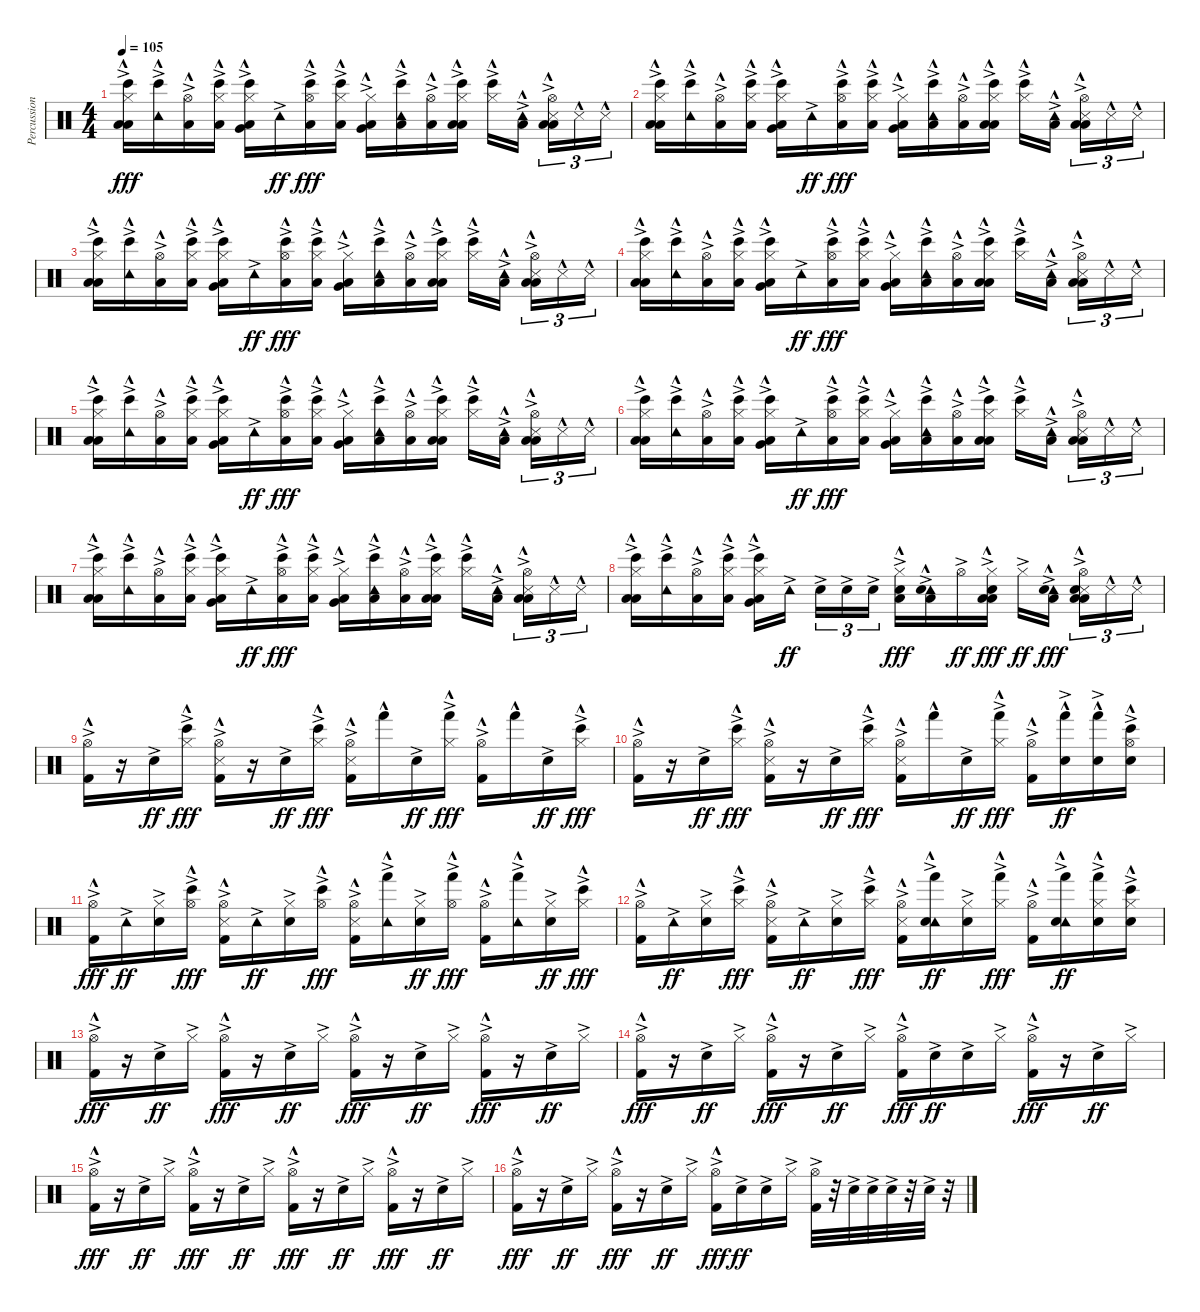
\track ("Percussion" "Percussion") {instrument percussion}
\staff {score}
\articulation defaults
\ts (4 4)
\tempo 105
\clef neutral
\ks c
("Hi-Hat (closed)"{ac} "Bongo High (hit)"{hac} "Low Floor Tom (hit)"{hac} "Low Floor Tom (hit)"{hac}).16{dy fff} ("Tambourine (hit)"{ac} "Bongo High (hit)"{hac}).16 ("Hi-Hat (open)"{ac} "Low Floor Tom (hit)"{hac}).16 ("Hi-Hat (closed)"{ac} "Bongo High (hit)"{hac} "Low Floor Tom (hit)"{hac}).16 ("Hi-Hat (closed)"{ac} "Bongo High (hit)"{hac} "Very Low Tom (hit)"{hac} "Low Floor Tom (hit)"{hac}).16 "Tambourine (hit)"{ac}.16{dy ff} ("Hi-Hat (open)"{ac} "Bongo High (hit)"{hac} "Low Floor Tom (hit)"{hac}).16{dy fff} ("Hi-Hat (closed)"{ac} "Bongo High (hit)"{hac} "Low Floor Tom (hit)"{hac}).16 ("Hi-Hat (closed)"{ac} "Very Low Tom (hit)"{hac} "Low Floor Tom (hit)"{hac}).16 ("Tambourine (hit)"{ac} "Bongo High (hit)"{hac} "Low Floor Tom (hit)"{hac}).16 ("Hi-Hat (open)"{ac} "Low Floor Tom (hit)"{hac}).16 ("Hi-Hat (closed)"{ac} "Bongo High (hit)"{hac} "Low Floor Tom (hit)"{hac} "Low Floor Tom (hit)"{hac}).16 ("Hi-Hat (closed)"{ac} "Bongo High (hit)"{hac}).16 ("Tambourine (hit)"{ac} "Low Floor Tom (hit)"{hac}).16{beam splitsecondary} ("Hi-Hat (open)"{ac} "Snare (side stick) 3"{hac} "Low Floor Tom (hit)"{hac} "Low Floor Tom (hit)"{hac}).16{tu (3 2)} "Snare (side stick) 3"{hac}.16{tu (3 2)} "Snare (side stick) 3"{hac}.16{tu (3 2)} |
("Hi-Hat (closed)"{ac} "Bongo High (hit)"{hac} "Low Floor Tom (hit)"{hac} "Low Floor Tom (hit)"{hac}).16 ("Tambourine (hit)"{ac} "Bongo High (hit)"{hac}).16 ("Hi-Hat (open)"{ac} "Low Floor Tom (hit)"{hac}).16 ("Hi-Hat (closed)"{ac} "Bongo High (hit)"{hac} "Low Floor Tom (hit)"{hac}).16 ("Hi-Hat (closed)"{ac} "Bongo High (hit)"{hac} "Very Low Tom (hit)"{hac} "Low Floor Tom (hit)"{hac}).16 "Tambourine (hit)"{ac}.16{dy ff} ("Hi-Hat (open)"{ac} "Bongo High (hit)"{hac} "Low Floor Tom (hit)"{hac}).16{dy fff} ("Hi-Hat (closed)"{ac} "Bongo High (hit)"{hac} "Low Floor Tom (hit)"{hac}).16 ("Hi-Hat (closed)"{ac} "Very Low Tom (hit)"{hac} "Low Floor Tom (hit)"{hac}).16 ("Tambourine (hit)"{ac} "Bongo High (hit)"{hac} "Low Floor Tom (hit)"{hac}).16 ("Hi-Hat (open)"{ac} "Low Floor Tom (hit)"{hac}).16 ("Hi-Hat (closed)"{ac} "Bongo High (hit)"{hac} "Low Floor Tom (hit)"{hac} "Low Floor Tom (hit)"{hac}).16 ("Hi-Hat (closed)"{ac} "Bongo High (hit)"{hac}).16 ("Tambourine (hit)"{ac} "Low Floor Tom (hit)"{hac}).16{beam splitsecondary} ("Hi-Hat (open)"{ac} "Snare (side stick) 3"{hac} "Low Floor Tom (hit)"{hac} "Low Floor Tom (hit)"{hac}).16{tu (3 2)} "Snare (side stick) 3"{hac}.16{tu (3 2)} "Snare (side stick) 3"{hac}.16{tu (3 2)} |
("Hi-Hat (closed)"{ac} "Bongo High (hit)"{hac} "Low Floor Tom (hit)"{hac} "Low Floor Tom (hit)"{hac}).16 ("Tambourine (hit)"{ac} "Bongo High (hit)"{hac}).16 ("Hi-Hat (open)"{ac} "Low Floor Tom (hit)"{hac}).16 ("Hi-Hat (closed)"{ac} "Bongo High (hit)"{hac} "Low Floor Tom (hit)"{hac}).16 ("Hi-Hat (closed)"{ac} "Bongo High (hit)"{hac} "Very Low Tom (hit)"{hac} "Low Floor Tom (hit)"{hac}).16 "Tambourine (hit)"{ac}.16{dy ff} ("Hi-Hat (open)"{ac} "Bongo High (hit)"{hac} "Low Floor Tom (hit)"{hac}).16{dy fff} ("Hi-Hat (closed)"{ac} "Bongo High (hit)"{hac} "Low Floor Tom (hit)"{hac}).16 ("Hi-Hat (closed)"{ac} "Very Low Tom (hit)"{hac} "Low Floor Tom (hit)"{hac}).16 ("Tambourine (hit)"{ac} "Bongo High (hit)"{hac} "Low Floor Tom (hit)"{hac}).16 ("Hi-Hat (open)"{ac} "Low Floor Tom (hit)"{hac}).16 ("Hi-Hat (closed)"{ac} "Bongo High (hit)"{hac} "Low Floor Tom (hit)"{hac} "Low Floor Tom (hit)"{hac}).16 ("Hi-Hat (closed)"{ac} "Bongo High (hit)"{hac}).16 ("Tambourine (hit)"{ac} "Low Floor Tom (hit)"{hac}).16{beam splitsecondary} ("Hi-Hat (open)"{ac} "Snare (side stick) 3"{hac} "Low Floor Tom (hit)"{hac} "Low Floor Tom (hit)"{hac}).16{tu (3 2)} "Snare (side stick) 3"{hac}.16{tu (3 2)} "Snare (side stick) 3"{hac}.16{tu (3 2)} |
("Hi-Hat (closed)"{ac} "Bongo High (hit)"{hac} "Low Floor Tom (hit)"{hac} "Low Floor Tom (hit)"{hac}).16 ("Tambourine (hit)"{ac} "Bongo High (hit)"{hac}).16 ("Hi-Hat (open)"{ac} "Low Floor Tom (hit)"{hac}).16 ("Hi-Hat (closed)"{ac} "Bongo High (hit)"{hac} "Low Floor Tom (hit)"{hac}).16 ("Hi-Hat (closed)"{ac} "Bongo High (hit)"{hac} "Very Low Tom (hit)"{hac} "Low Floor Tom (hit)"{hac}).16 "Tambourine (hit)"{ac}.16{dy ff} ("Hi-Hat (open)"{ac} "Bongo High (hit)"{hac} "Low Floor Tom (hit)"{hac}).16{dy fff} ("Hi-Hat (closed)"{ac} "Bongo High (hit)"{hac} "Low Floor Tom (hit)"{hac}).16 ("Hi-Hat (closed)"{ac} "Very Low Tom (hit)"{hac} "Low Floor Tom (hit)"{hac}).16 ("Tambourine (hit)"{ac} "Bongo High (hit)"{hac} "Low Floor Tom (hit)"{hac}).16 ("Hi-Hat (open)"{ac} "Low Floor Tom (hit)"{hac}).16 ("Hi-Hat (closed)"{ac} "Bongo High (hit)"{hac} "Low Floor Tom (hit)"{hac} "Low Floor Tom (hit)"{hac}).16 ("Hi-Hat (closed)"{ac} "Bongo High (hit)"{hac}).16 ("Tambourine (hit)"{ac} "Low Floor Tom (hit)"{hac}).16{beam splitsecondary} ("Hi-Hat (open)"{ac} "Snare (side stick) 3"{hac} "Low Floor Tom (hit)"{hac} "Low Floor Tom (hit)"{hac}).16{tu (3 2)} "Snare (side stick) 3"{hac}.16{tu (3 2)} "Snare (side stick) 3"{hac}.16{tu (3 2)} |
("Hi-Hat (closed)"{ac} "Bongo High (hit)"{hac} "Low Floor Tom (hit)"{hac} "Low Floor Tom (hit)"{hac}).16 ("Tambourine (hit)"{ac} "Bongo High (hit)"{hac}).16 ("Hi-Hat (open)"{ac} "Low Floor Tom (hit)"{hac}).16 ("Hi-Hat (closed)"{ac} "Bongo High (hit)"{hac} "Low Floor Tom (hit)"{hac}).16 ("Hi-Hat (closed)"{ac} "Bongo High (hit)"{hac} "Very Low Tom (hit)"{hac} "Low Floor Tom (hit)"{hac}).16 "Tambourine (hit)"{ac}.16{dy ff} ("Hi-Hat (open)"{ac} "Bongo High (hit)"{hac} "Low Floor Tom (hit)"{hac}).16{dy fff} ("Hi-Hat (closed)"{ac} "Bongo High (hit)"{hac} "Low Floor Tom (hit)"{hac}).16 ("Hi-Hat (closed)"{ac} "Very Low Tom (hit)"{hac} "Low Floor Tom (hit)"{hac}).16 ("Tambourine (hit)"{ac} "Bongo High (hit)"{hac} "Low Floor Tom (hit)"{hac}).16 ("Hi-Hat (open)"{ac} "Low Floor Tom (hit)"{hac}).16 ("Hi-Hat (closed)"{ac} "Bongo High (hit)"{hac} "Low Floor Tom (hit)"{hac} "Low Floor Tom (hit)"{hac}).16 ("Hi-Hat (closed)"{ac} "Bongo High (hit)"{hac}).16 ("Tambourine (hit)"{ac} "Low Floor Tom (hit)"{hac}).16{beam splitsecondary} ("Hi-Hat (open)"{ac} "Snare (side stick) 3"{hac} "Low Floor Tom (hit)"{hac} "Low Floor Tom (hit)"{hac}).16{tu (3 2)} "Snare (side stick) 3"{hac}.16{tu (3 2)} "Snare (side stick) 3"{hac}.16{tu (3 2)} |
("Hi-Hat (closed)"{ac} "Bongo High (hit)"{hac} "Low Floor Tom (hit)"{hac} "Low Floor Tom (hit)"{hac}).16 ("Tambourine (hit)"{ac} "Bongo High (hit)"{hac}).16 ("Hi-Hat (open)"{ac} "Low Floor Tom (hit)"{hac}).16 ("Hi-Hat (closed)"{ac} "Bongo High (hit)"{hac} "Low Floor Tom (hit)"{hac}).16 ("Hi-Hat (closed)"{ac} "Bongo High (hit)"{hac} "Very Low Tom (hit)"{hac} "Low Floor Tom (hit)"{hac}).16 "Tambourine (hit)"{ac}.16{dy ff} ("Hi-Hat (open)"{ac} "Bongo High (hit)"{hac} "Low Floor Tom (hit)"{hac}).16{dy fff} ("Hi-Hat (closed)"{ac} "Bongo High (hit)"{hac} "Low Floor Tom (hit)"{hac}).16 ("Hi-Hat (closed)"{ac} "Very Low Tom (hit)"{hac} "Low Floor Tom (hit)"{hac}).16 ("Tambourine (hit)"{ac} "Bongo High (hit)"{hac} "Low Floor Tom (hit)"{hac}).16 ("Hi-Hat (open)"{ac} "Low Floor Tom (hit)"{hac}).16 ("Hi-Hat (closed)"{ac} "Bongo High (hit)"{hac} "Low Floor Tom (hit)"{hac} "Low Floor Tom (hit)"{hac}).16 ("Hi-Hat (closed)"{ac} "Bongo High (hit)"{hac}).16 ("Tambourine (hit)"{ac} "Low Floor Tom (hit)"{hac}).16{beam splitsecondary} ("Hi-Hat (open)"{ac} "Snare (side stick) 3"{hac} "Low Floor Tom (hit)"{hac} "Low Floor Tom (hit)"{hac}).16{tu (3 2)} "Snare (side stick) 3"{hac}.16{tu (3 2)} "Snare (side stick) 3"{hac}.16{tu (3 2)} |
("Hi-Hat (closed)"{ac} "Bongo High (hit)"{hac} "Low Floor Tom (hit)"{hac} "Low Floor Tom (hit)"{hac}).16 ("Tambourine (hit)"{ac} "Bongo High (hit)"{hac}).16 ("Hi-Hat (open)"{ac} "Low Floor Tom (hit)"{hac}).16 ("Hi-Hat (closed)"{ac} "Bongo High (hit)"{hac} "Low Floor Tom (hit)"{hac}).16 ("Hi-Hat (closed)"{ac} "Bongo High (hit)"{hac} "Very Low Tom (hit)"{hac} "Low Floor Tom (hit)"{hac}).16 "Tambourine (hit)"{ac}.16{dy ff} ("Hi-Hat (open)"{ac} "Bongo High (hit)"{hac} "Low Floor Tom (hit)"{hac}).16{dy fff} ("Hi-Hat (closed)"{ac} "Bongo High (hit)"{hac} "Low Floor Tom (hit)"{hac}).16 ("Hi-Hat (closed)"{ac} "Very Low Tom (hit)"{hac} "Low Floor Tom (hit)"{hac}).16 ("Tambourine (hit)"{ac} "Bongo High (hit)"{hac} "Low Floor Tom (hit)"{hac}).16 ("Hi-Hat (open)"{ac} "Low Floor Tom (hit)"{hac}).16 ("Hi-Hat (closed)"{ac} "Bongo High (hit)"{hac} "Low Floor Tom (hit)"{hac} "Low Floor Tom (hit)"{hac}).16 ("Hi-Hat (closed)"{ac} "Bongo High (hit)"{hac}).16 ("Tambourine (hit)"{ac} "Low Floor Tom (hit)"{hac}).16{beam splitsecondary} ("Hi-Hat (open)"{ac} "Snare (side stick) 3"{hac} "Low Floor Tom (hit)"{hac} "Low Floor Tom (hit)"{hac}).16{tu (3 2)} "Snare (side stick) 3"{hac}.16{tu (3 2)} "Snare (side stick) 3"{hac}.16{tu (3 2)} |
("Hi-Hat (closed)"{ac} "Bongo High (hit)"{hac} "Low Floor Tom (hit)"{hac} "Low Floor Tom (hit)"{hac}).16 ("Tambourine (hit)"{ac} "Bongo High (hit)"{hac}).16 ("Hi-Hat (open)"{ac} "Low Floor Tom (hit)"{hac}).16 ("Hi-Hat (closed)"{ac} "Bongo High (hit)"{hac} "Low Floor Tom (hit)"{hac}).16 ("Hi-Hat (closed)"{ac} "Bongo High (hit)"{hac} "Very Low Tom (hit)"{hac} "Low Floor Tom (hit)"{hac}).16 "Tambourine (hit)"{ac}.16{dy ff beam splitsecondary} "Snare (hit) 2"{ac}.16{tu (3 2)} "Snare (hit) 2"{ac}.16{tu (3 2)} "Snare (hit) 2"{ac}.16{tu (3 2)} ("Hi-Hat (closed)"{ac} "Snare (hit) 2"{ac} "Low Floor Tom (hit)"{hac}).16{dy fff} ("Tambourine (hit)"{ac} "Snare (hit) 2"{ac} "Low Floor Tom (hit)"{hac}).16 "Hi-Hat (open)"{ac}.16{dy ff} ("Hi-Hat (closed)"{ac} "Snare (hit) 2"{ac} "Low Floor Tom (hit)"{hac} "Low Floor Tom (hit)"{hac}).16{dy fff} "Hi-Hat (closed)"{ac}.16{dy ff} ("Tambourine (hit)"{ac} "Snare (hit) 2"{ac} "Low Floor Tom (hit)"{hac}).16{dy fff beam splitsecondary} ("Hi-Hat (open)"{ac} "Snare (side stick) 3"{hac} "Snare (hit) 2"{ac} "Low Floor Tom (hit)"{hac} "Low Floor Tom (hit)"{hac}).16{tu (3 2)} "Snare (side stick) 3"{hac}.16{tu (3 2)} "Snare (side stick) 3"{hac}.16{tu (3 2)} |
("Hi-Hat (open)"{ac} "Kick (hit) 2"{hac}).16 r.16 "Snare (hit) 2"{ac}.16{dy ff} ("Hi-Hat (closed)"{ac} "Bongo High (hit)"{hac}).16{dy fff} ("Hi-Hat (open)"{ac} "Snare (side stick) 3"{hac} "Kick (hit) 2"{hac}).16 r.16 "Snare (hit) 2"{ac}.16{dy ff} ("Hi-Hat (closed)"{ac} "Bongo High (hit)"{hac}).16{dy fff} ("Hi-Hat (open)"{ac} "Snare (side stick) 3"{hac} "Kick (hit) 2"{hac}).16 "Hand (hit)"{hac}.16 "Snare (hit) 2"{ac}.16{dy ff} ("Hi-Hat (closed)"{ac} "Hand (hit)"{hac}).16{dy fff} ("Hi-Hat (open)"{ac} "Kick (hit) 2"{hac}).16 "Hand (hit)"{hac}.16 "Snare (hit) 2"{ac}.16{dy ff} ("Hi-Hat (closed)"{ac} "Bongo High (hit)"{hac}).16{dy fff} |
("Hi-Hat (open)"{ac} "Kick (hit) 2"{hac}).16 r.16 "Snare (hit) 2"{ac}.16{dy ff} ("Hi-Hat (closed)"{ac} "Bongo High (hit)"{hac}).16{dy fff} ("Hi-Hat (open)"{ac} "Snare (side stick) 3"{hac} "Kick (hit) 2"{hac}).16 r.16 "Snare (hit) 2"{ac}.16{dy ff} ("Hi-Hat (closed)"{ac} "Bongo High (hit)"{hac}).16{dy fff} ("Hi-Hat (open)"{ac} "Snare (side stick) 3"{hac} "Kick (hit) 2"{hac}).16 "Hand (hit)"{hac}.16 "Snare (hit) 2"{ac}.16{dy ff} ("Hi-Hat (closed)"{ac} "Hand (hit)"{hac}).16{dy fff} ("Hi-Hat (open)"{ac} "Kick (hit) 2"{hac}).16 ("Hand (hit)"{hac} "Snare (hit) 2"{ac}).16{dy ff} ("Hand (hit)"{hac} "Snare (hit) 2"{ac}).16 ("Hi-Hat (open)"{ac} "Bongo High (hit)"{hac} "Snare (hit) 2"{ac}).16 |
("Hi-Hat (open)"{ac} "Kick (hit) 2"{hac}).16{dy fff} "Tambourine (hit)"{ac}.16{dy ff} ("Hi-Hat (closed)"{ac} "Snare (hit) 2"{ac}).16 ("Hi-Hat (open)"{ac} "Bongo High (hit)"{hac}).16{dy fff} ("Hi-Hat (open)"{ac} "Snare (side stick) 3"{hac} "Kick (hit) 2"{hac}).16 "Tambourine (hit)"{ac}.16{dy ff} ("Hi-Hat (closed)"{ac} "Snare (hit) 2"{ac}).16 ("Hi-Hat (open)"{ac} "Bongo High (hit)"{hac}).16{dy fff} ("Hi-Hat (open)"{ac} "Snare (side stick) 3"{hac} "Kick (hit) 2"{hac}).16 ("Tambourine (hit)"{ac} "Hand (hit)"{hac}).16 ("Hi-Hat (closed)"{ac} "Snare (hit) 2"{ac}).16{dy ff} ("Hi-Hat (open)"{ac} "Hand (hit)"{hac}).16{dy fff} ("Hi-Hat (open)"{ac} "Kick (hit) 2"{hac}).16 ("Tambourine (hit)"{ac} "Hand (hit)"{hac}).16 ("Hi-Hat (closed)"{ac} "Snare (hit) 2"{ac}).16{dy ff} ("Hi-Hat (closed)"{ac} "Bongo High (hit)"{hac}).16{dy fff} |
("Hi-Hat (open)"{ac} "Kick (hit) 2"{hac}).16 "Tambourine (hit)"{ac}.16{dy ff} ("Hi-Hat (closed)"{ac} "Snare (hit) 2"{ac}).16 ("Hi-Hat (closed)"{ac} "Bongo High (hit)"{hac}).16{dy fff} ("Hi-Hat (open)"{ac} "Snare (side stick) 3"{hac} "Kick (hit) 2"{hac}).16 "Tambourine (hit)"{ac}.16{dy ff} ("Hi-Hat (closed)"{ac} "Snare (hit) 2"{ac}).16 ("Hi-Hat (closed)"{ac} "Bongo High (hit)"{hac}).16{dy fff} ("Hi-Hat (open)"{ac} "Snare (side stick) 3"{hac} "Kick (hit) 2"{hac}).16 ("Tambourine (hit)"{ac} "Hand (hit)"{hac} "Snare (hit) 2"{ac}).16{dy ff} ("Hi-Hat (closed)"{ac} "Snare (hit) 2"{ac}).16 ("Hi-Hat (closed)"{ac} "Hand (hit)"{hac}).16{dy fff} ("Hi-Hat (open)"{ac} "Kick (hit) 2"{hac}).16 ("Tambourine (hit)"{ac} "Hand (hit)"{hac} "Snare (hit) 2"{ac}).16{dy ff} ("Hi-Hat (closed)"{ac} "Hand (hit)"{hac} "Snare (hit) 2"{ac}).16 ("Hi-Hat (closed)"{ac} "Bongo High (hit)"{hac} "Snare (hit) 2"{ac}).16 |
("Hi-Hat (open)"{ac} "Kick (hit) 2"{hac}).16{dy fff} r.16 "Snare (hit) 2"{ac}.16{dy ff} "Hi-Hat (closed)"{ac}.16 ("Hi-Hat (open)"{ac} "Kick (hit) 2"{hac}).16{dy fff} r.16 "Snare (hit) 2"{ac}.16{dy ff} "Hi-Hat (closed)"{ac}.16 ("Hi-Hat (open)"{ac} "Kick (hit) 2"{hac}).16{dy fff} r.16 "Snare (hit) 2"{ac}.16{dy ff} "Hi-Hat (closed)"{ac}.16 ("Hi-Hat (open)"{ac} "Kick (hit) 2"{hac}).16{dy fff} r.16 "Snare (hit) 2"{ac}.16{dy ff} "Hi-Hat (closed)"{ac}.16 |
("Hi-Hat (open)"{ac} "Kick (hit) 2"{hac}).16{dy fff} r.16 "Snare (hit) 2"{ac}.16{dy ff} "Hi-Hat (closed)"{ac}.16 ("Hi-Hat (open)"{ac} "Kick (hit) 2"{hac}).16{dy fff} r.16 "Snare (hit) 2"{ac}.16{dy ff} "Hi-Hat (closed)"{ac}.16 ("Hi-Hat (open)"{ac} "Kick (hit) 2"{hac}).16{dy fff} "Snare (hit) 2"{ac}.16{dy ff} "Snare (hit) 2"{ac}.16 "Hi-Hat (closed)"{ac}.16 ("Hi-Hat (open)"{ac} "Kick (hit) 2"{hac}).16{dy fff} r.16 "Snare (hit) 2"{ac}.16{dy ff} "Hi-Hat (closed)"{ac}.16 |
("Hi-Hat (open)"{ac} "Kick (hit) 2"{hac}).16{dy fff} r.16 "Snare (hit) 2"{ac}.16{dy ff} "Hi-Hat (closed)"{ac}.16 ("Hi-Hat (open)"{ac} "Kick (hit) 2"{hac}).16{dy fff} r.16 "Snare (hit) 2"{ac}.16{dy ff} "Hi-Hat (closed)"{ac}.16 ("Hi-Hat (open)"{ac} "Kick (hit) 2"{hac}).16{dy fff} r.16 "Snare (hit) 2"{ac}.16{dy ff} "Hi-Hat (closed)"{ac}.16 ("Hi-Hat (open)"{ac} "Kick (hit) 2"{hac}).16{dy fff} r.16 "Snare (hit) 2"{ac}.16{dy ff} "Hi-Hat (closed)"{ac}.16 |
("Hi-Hat (open)"{ac} "Kick (hit) 2"{hac}).16{dy fff} r.16 "Snare (hit) 2"{ac}.16{dy ff} "Hi-Hat (closed)"{ac}.16 ("Hi-Hat (open)"{ac} "Kick (hit) 2"{hac}).16{dy fff} r.16 "Snare (hit) 2"{ac}.16{dy ff} "Hi-Hat (closed)"{ac}.16 ("Hi-Hat (open)"{ac} "Kick (hit) 2"{hac}).16{dy fff} "Snare (hit) 2"{ac}.16{dy ff} "Snare (hit) 2"{ac}.16 "Hi-Hat (closed)"{ac}.16 ("Hi-Hat (open)"{ac} "Kick (hit) 2").32 r.32 "Snare (hit) 2"{ac}.32 "Snare (hit) 2"{ac}.32 "Snare (hit) 2"{ac}.32 r.32 "Snare (hit) 2"{ac}.32 r.32
